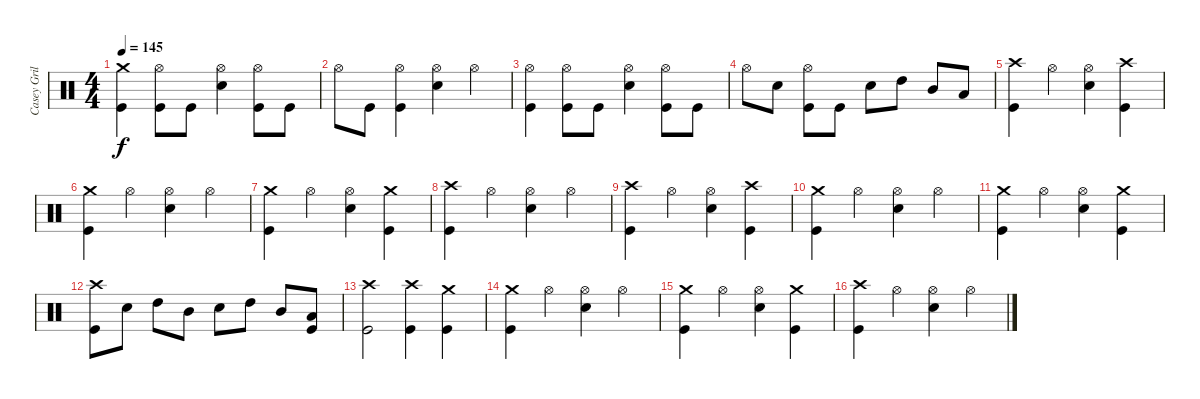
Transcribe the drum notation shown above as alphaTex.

\track ("Casey Grillo" "Casey Gril") {instrument percussion}
\staff {score}
\articulation defaults
\ts (4 4)
\tempo 145
\clef neutral
\ks c
("Crash medium (hit)" "Kick (hit)").4{dy f} ("Hi-Hat (open)" "Kick (hit)").8 "Kick (hit)".8 ("Hi-Hat (open)" "Snare (hit) 2").4 ("Hi-Hat (open)" "Kick (hit)").8 "Kick (hit)".8 |
"Hi-Hat (open)".8 "Kick (hit)".8 ("Hi-Hat (open)" "Kick (hit)").4 ("Hi-Hat (open)" "Snare (hit) 2").4 "Hi-Hat (open)".4 |
("Hi-Hat (open)" "Kick (hit)").4 ("Hi-Hat (open)" "Kick (hit)").8 "Kick (hit)".8 ("Hi-Hat (open)" "Snare (hit) 2").4 ("Hi-Hat (open)" "Kick (hit)").8 "Kick (hit)".8 |
"Hi-Hat (open)".8 "Snare (hit) 2".8 ("Hi-Hat (open)" "Kick (hit)").8 "Kick (hit)".8 "Snare (hit) 2".8 "High Tom (hit)".8 "Mid Tom (hit)".8 "Low Tom (hit)".8 |
("Crash high (hit)" "Kick (hit)").4 "Hi-Hat (open)".4 ("Hi-Hat (open)" "Snare (hit) 2").4 ("Crash high (hit)" "Kick (hit)").4 |
("Crash medium (hit)" "Kick (hit)").4 "Hi-Hat (open)".4 ("Hi-Hat (open)" "Snare (hit) 2").4 "Hi-Hat (open)".4 |
("Crash medium (hit)" "Kick (hit)").4 "Hi-Hat (open)".4 ("Hi-Hat (open)" "Snare (hit) 2").4 ("Crash medium (hit)" "Kick (hit)").4 |
("Crash high (hit)" "Kick (hit)").4 "Hi-Hat (open)".4 ("Hi-Hat (open)" "Snare (hit) 2").4 "Hi-Hat (open)".4 |
("Crash high (hit)" "Kick (hit)").4 "Hi-Hat (open)".4 ("Hi-Hat (open)" "Snare (hit) 2").4 ("Crash high (hit)" "Kick (hit)").4 |
("Crash medium (hit)" "Kick (hit)").4 "Hi-Hat (open)".4 ("Hi-Hat (open)" "Snare (hit) 2").4 "Hi-Hat (open)".4 |
("Crash medium (hit)" "Kick (hit)").4 "Hi-Hat (open)".4 ("Hi-Hat (open)" "Snare (hit) 2").4 ("Crash medium (hit)" "Kick (hit)").4 |
("Crash high (hit)" "Kick (hit)").8 "Snare (hit) 2".8 "High Tom (hit)".8 "Mid Tom (hit)".8 "Snare (hit) 2".8 "High Tom (hit)".8 "Mid Tom (hit)".8 ("Low Tom (hit)" "Kick (hit)").8 |
("Crash high (hit)" "Kick (hit)").2 ("Crash high (hit)" "Kick (hit)").4 ("Crash medium (hit)" "Kick (hit)").4 |
("Crash medium (hit)" "Kick (hit)").4 "Hi-Hat (open)".4 ("Hi-Hat (open)" "Snare (hit) 2").4 "Hi-Hat (open)".4 |
("Crash medium (hit)" "Kick (hit)").4 "Hi-Hat (open)".4 ("Hi-Hat (open)" "Snare (hit) 2").4 ("Crash medium (hit)" "Kick (hit)").4 |
("Crash high (hit)" "Kick (hit)").4 "Hi-Hat (open)".4 ("Hi-Hat (open)" "Snare (hit) 2").4 "Hi-Hat (open)".4
